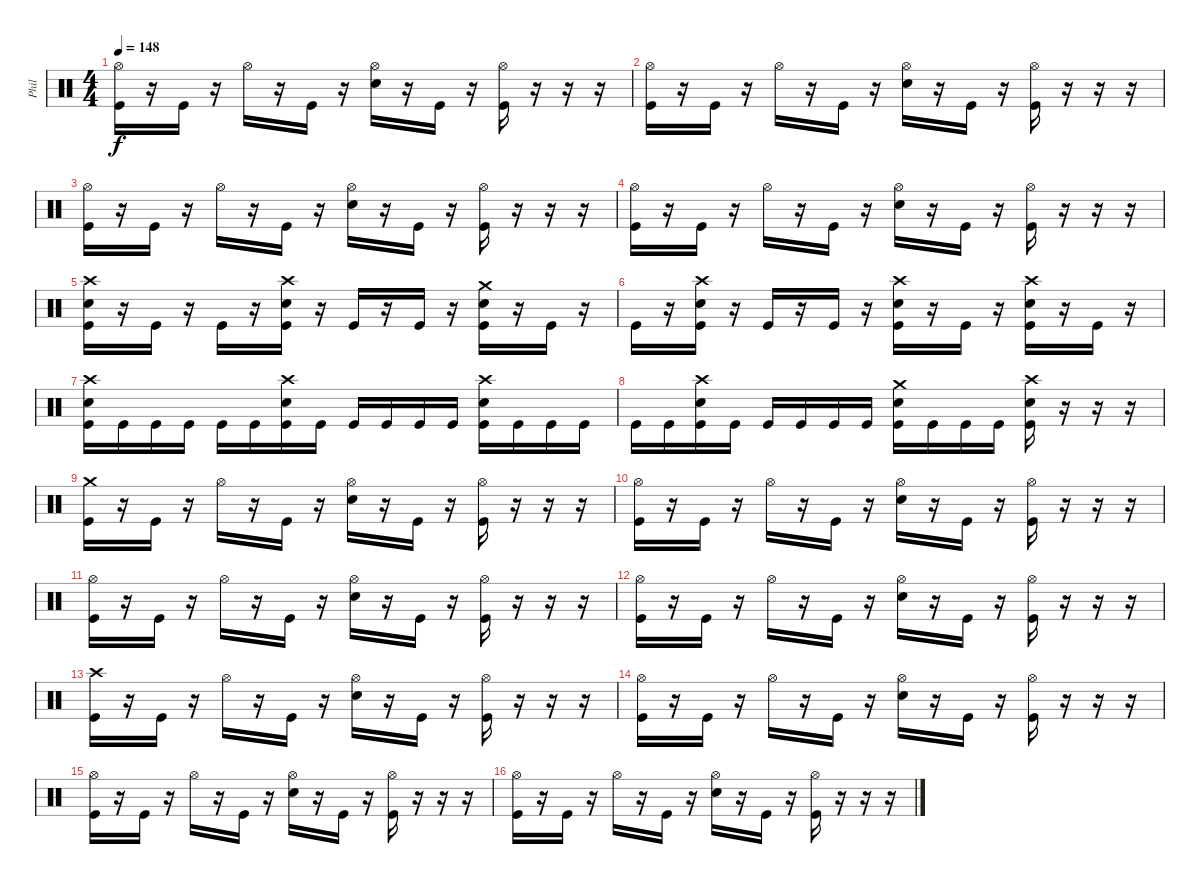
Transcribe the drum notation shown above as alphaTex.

\track ("Phil" "Phil") {instrument percussion}
\staff {score}
\articulation defaults
\ts (4 4)
\tempo 148
\clef neutral
\ks c
("Hi-Hat (open)" "Kick (hit)").16{dy f} r.16 "Kick (hit)".16 r.16 "Hi-Hat (open)".16 r.16 "Kick (hit)".16 r.16 ("Hi-Hat (open)" "Electric Snare (hit)").16 r.16 "Kick (hit)".16 r.16 ("Hi-Hat (open)" "Kick (hit)").16 r.16 r.16 r.16 |
("Hi-Hat (open)" "Kick (hit)").16 r.16 "Kick (hit)".16 r.16 "Hi-Hat (open)".16 r.16 "Kick (hit)".16 r.16 ("Hi-Hat (open)" "Electric Snare (hit)").16 r.16 "Kick (hit)".16 r.16 ("Hi-Hat (open)" "Kick (hit)").16 r.16 r.16 r.16 |
("Hi-Hat (open)" "Kick (hit)").16 r.16 "Kick (hit)".16 r.16 "Hi-Hat (open)".16 r.16 "Kick (hit)".16 r.16 ("Hi-Hat (open)" "Electric Snare (hit)").16 r.16 "Kick (hit)".16 r.16 ("Hi-Hat (open)" "Kick (hit)").16 r.16 r.16 r.16 |
("Hi-Hat (open)" "Kick (hit)").16 r.16 "Kick (hit)".16 r.16 "Hi-Hat (open)".16 r.16 "Kick (hit)".16 r.16 ("Hi-Hat (open)" "Electric Snare (hit)").16 r.16 "Kick (hit)".16 r.16 ("Hi-Hat (open)" "Kick (hit)").16 r.16 r.16 r.16 |
("Crash high (hit)" "Electric Snare (hit)" "Kick (hit)").16 r.16 "Kick (hit)".16 r.16 "Kick (hit)".16 r.16 ("Crash high (hit)" "Electric Snare (hit)" "Kick (hit)").16 r.16 "Kick (hit)".16 r.16 "Kick (hit)".16 r.16 ("Crash medium (hit)" "Electric Snare (hit)" "Kick (hit)").16 r.16 "Kick (hit)".16 r.16 |
"Kick (hit)".16 r.16 ("Crash high (hit)" "Electric Snare (hit)" "Kick (hit)").16 r.16 "Kick (hit)".16 r.16 "Kick (hit)".16 r.16 ("Crash high (hit)" "Electric Snare (hit)" "Kick (hit)").16 r.16 "Kick (hit)".16 r.16 ("Crash high (hit)" "Electric Snare (hit)" "Kick (hit)").16 r.16 "Kick (hit)".16 r.16 |
("Crash high (hit)" "Electric Snare (hit)" "Kick (hit)").16 "Kick (hit)".16 "Kick (hit)".16 "Kick (hit)".16 "Kick (hit)".16 "Kick (hit)".16 ("Crash high (hit)" "Electric Snare (hit)" "Kick (hit)").16 "Kick (hit)".16 "Kick (hit)".16 "Kick (hit)".16 "Kick (hit)".16 "Kick (hit)".16 ("Crash high (hit)" "Electric Snare (hit)" "Kick (hit)").16 "Kick (hit)".16 "Kick (hit)".16 "Kick (hit)".16 |
"Kick (hit)".16 "Kick (hit)".16 ("Crash high (hit)" "Electric Snare (hit)" "Kick (hit)").16 "Kick (hit)".16 "Kick (hit)".16 "Kick (hit)".16 "Kick (hit)".16 "Kick (hit)".16 ("Crash medium (hit)" "Electric Snare (hit)" "Kick (hit)").16 "Kick (hit)".16 "Kick (hit)".16 "Kick (hit)".16 ("Crash high (hit)" "Electric Snare (hit)" "Kick (hit)").16 r.16 r.16 r.16 |
("Crash medium (hit)" "Kick (hit)").16 r.16 "Kick (hit)".16 r.16 "Hi-Hat (open)".16 r.16 "Kick (hit)".16 r.16 ("Hi-Hat (open)" "Electric Snare (hit)").16 r.16 "Kick (hit)".16 r.16 ("Hi-Hat (open)" "Kick (hit)").16 r.16 r.16 r.16 |
("Hi-Hat (open)" "Kick (hit)").16 r.16 "Kick (hit)".16 r.16 "Hi-Hat (open)".16 r.16 "Kick (hit)".16 r.16 ("Hi-Hat (open)" "Electric Snare (hit)").16 r.16 "Kick (hit)".16 r.16 ("Hi-Hat (open)" "Kick (hit)").16 r.16 r.16 r.16 |
("Hi-Hat (open)" "Kick (hit)").16 r.16 "Kick (hit)".16 r.16 "Hi-Hat (open)".16 r.16 "Kick (hit)".16 r.16 ("Hi-Hat (open)" "Electric Snare (hit)").16 r.16 "Kick (hit)".16 r.16 ("Hi-Hat (open)" "Kick (hit)").16 r.16 r.16 r.16 |
("Hi-Hat (open)" "Kick (hit)").16 r.16 "Kick (hit)".16 r.16 "Hi-Hat (open)".16 r.16 "Kick (hit)".16 r.16 ("Hi-Hat (open)" "Electric Snare (hit)").16 r.16 "Kick (hit)".16 r.16 ("Hi-Hat (open)" "Kick (hit)").16 r.16 r.16 r.16 |
("Crash high (hit)" "Kick (hit)").16 r.16 "Kick (hit)".16 r.16 "Hi-Hat (open)".16 r.16 "Kick (hit)".16 r.16 ("Hi-Hat (open)" "Electric Snare (hit)").16 r.16 "Kick (hit)".16 r.16 ("Hi-Hat (open)" "Kick (hit)").16 r.16 r.16 r.16 |
("Hi-Hat (open)" "Kick (hit)").16 r.16 "Kick (hit)".16 r.16 "Hi-Hat (open)".16 r.16 "Kick (hit)".16 r.16 ("Hi-Hat (open)" "Electric Snare (hit)").16 r.16 "Kick (hit)".16 r.16 ("Hi-Hat (open)" "Kick (hit)").16 r.16 r.16 r.16 |
("Hi-Hat (open)" "Kick (hit)").16 r.16 "Kick (hit)".16 r.16 "Hi-Hat (open)".16 r.16 "Kick (hit)".16 r.16 ("Hi-Hat (open)" "Electric Snare (hit)").16 r.16 "Kick (hit)".16 r.16 ("Hi-Hat (open)" "Kick (hit)").16 r.16 r.16 r.16 |
("Hi-Hat (open)" "Kick (hit)").16 r.16 "Kick (hit)".16 r.16 "Hi-Hat (open)".16 r.16 "Kick (hit)".16 r.16 ("Hi-Hat (open)" "Electric Snare (hit)").16 r.16 "Kick (hit)".16 r.16 ("Hi-Hat (open)" "Kick (hit)").16 r.16 r.16 r.16
